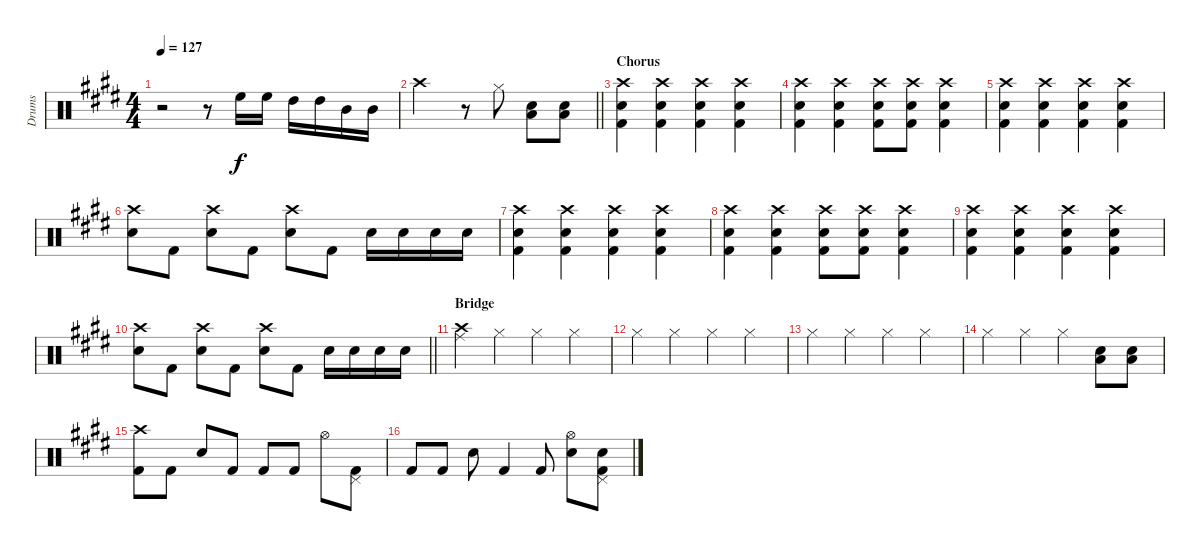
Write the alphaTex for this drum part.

\track ("Drums" "Drums") {instrument percussion}
\staff {score}
\articulation defaults
\ts (4 4)
\tempo 127
\clef neutral
\ks e
r.2{dy f} r.8 "High Floor Tom (hit)".16 "High Floor Tom (hit)".16 "High Tom (hit)".16 "High Tom (hit)".16 "Mid Tom (hit)".16 "Mid Tom (hit)".16 |
\barLineRight lightlight "Crash high (hit)".2
r.8 "Hi-Hat (closed)".8 ("Low Floor Tom (hit)" "Electric Snare (hit)").8 ("Low Floor Tom (hit)" "Electric Snare (hit)").8 |
\section ("" "Chorus")
("Crash high (hit)" "Electric Snare (hit)" "Kick (hit) 2").4 ("Crash high (hit)" "Electric Snare (hit)" "Kick (hit) 2").4 ("Crash high (hit)" "Electric Snare (hit)" "Kick (hit) 2").4 ("Crash high (hit)" "Electric Snare (hit)" "Kick (hit) 2").4 |
("Crash high (hit)" "Electric Snare (hit)" "Kick (hit) 2").4 ("Crash high (hit)" "Electric Snare (hit)" "Kick (hit) 2").4 ("Crash high (hit)" "Electric Snare (hit)" "Kick (hit) 2").8 ("Crash high (hit)" "Electric Snare (hit)" "Kick (hit) 2").8 ("Crash high (hit)" "Electric Snare (hit)" "Kick (hit) 2").4 |
("Crash high (hit)" "Electric Snare (hit)" "Kick (hit) 2").4 ("Crash high (hit)" "Electric Snare (hit)" "Kick (hit) 2").4 ("Crash high (hit)" "Electric Snare (hit)" "Kick (hit) 2").4 ("Crash high (hit)" "Electric Snare (hit)" "Kick (hit) 2").4 |
("Crash high (hit)" "Electric Snare (hit)").8 "Kick (hit) 2".8 ("Crash high (hit)" "Electric Snare (hit)").8 "Kick (hit) 2".8 ("Crash high (hit)" "Electric Snare (hit)").8 "Kick (hit) 2".8 "Electric Snare (hit)".16 "Electric Snare (hit)".16 "Electric Snare (hit)".16 "Electric Snare (hit)".16 |
("Crash high (hit)" "Electric Snare (hit)" "Kick (hit) 2").4 ("Crash high (hit)" "Electric Snare (hit)" "Kick (hit) 2").4 ("Crash high (hit)" "Electric Snare (hit)" "Kick (hit) 2").4 ("Crash high (hit)" "Electric Snare (hit)" "Kick (hit) 2").4 |
("Crash high (hit)" "Electric Snare (hit)" "Kick (hit) 2").4 ("Crash high (hit)" "Electric Snare (hit)" "Kick (hit) 2").4 ("Crash high (hit)" "Electric Snare (hit)" "Kick (hit) 2").8 ("Crash high (hit)" "Electric Snare (hit)" "Kick (hit) 2").8 ("Crash high (hit)" "Electric Snare (hit)" "Kick (hit) 2").4 |
("Crash high (hit)" "Electric Snare (hit)" "Kick (hit) 2").4 ("Crash high (hit)" "Electric Snare (hit)" "Kick (hit) 2").4 ("Crash high (hit)" "Electric Snare (hit)" "Kick (hit) 2").4 ("Crash high (hit)" "Electric Snare (hit)" "Kick (hit) 2").4 |
\barLineRight lightlight
("Crash high (hit)" "Electric Snare (hit)").8 "Kick (hit) 2".8 ("Crash high (hit)" "Electric Snare (hit)").8 "Kick (hit) 2".8 ("Crash high (hit)" "Electric Snare (hit)").8 "Kick (hit) 2".8 "Electric Snare (hit)".16 "Electric Snare (hit)".16 "Electric Snare (hit)".16 "Electric Snare (hit)".16 |
\section ("" "Bridge")
("Ride (middle)" "Crash high (hit)").4 "Hi-Hat (closed)".4 "Hi-Hat (closed)".4 "Hi-Hat (closed)".4 |
"Hi-Hat (closed)".4 "Hi-Hat (closed)".4 "Hi-Hat (closed)".4 "Hi-Hat (closed)".4 |
"Hi-Hat (closed)".4 "Hi-Hat (closed)".4 "Hi-Hat (closed)".4 "Hi-Hat (closed)".4 |
"Hi-Hat (closed)".4 "Hi-Hat (closed)".4 "Hi-Hat (closed)".4 ("Low Floor Tom (hit)" "Electric Snare (hit)").8 ("Low Floor Tom (hit)" "Electric Snare (hit)").8 |
("Crash high (hit)" "Kick (hit) 2").8 "Kick (hit) 2".8 "Snare (hit) 2".8 "Kick (hit) 2".8 "Kick (hit) 2".8 "Kick (hit) 2".8 "Hi-Hat (open)".8 ("Pedal Hi-Hat (hit)" "Kick (hit) 2").8 |
"Kick (hit) 2".8 "Kick (hit) 2".8 "Snare (hit) 2".8 "Kick (hit) 2".4 "Kick (hit) 2".8 ("Hi-Hat (open)" "Snare (hit) 2").8 ("Pedal Hi-Hat (hit)" "Snare (hit) 2" "Kick (hit) 2").8
